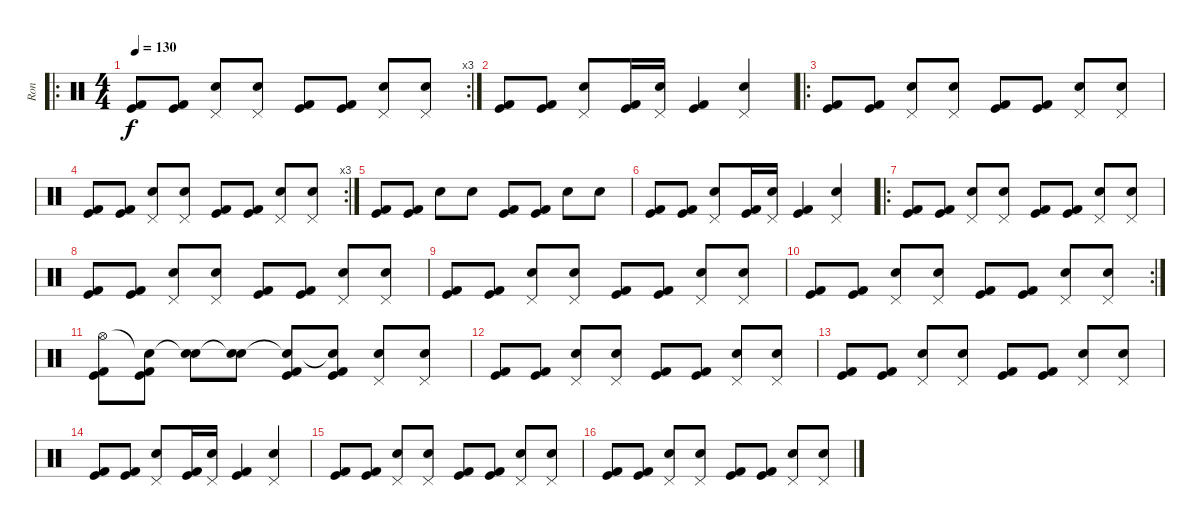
\track ("Ron" "Ron") {instrument percussion}
\staff {score}
\articulation defaults
\ro
\rc 3
\ts (4 4)
\tempo 130
\clef neutral
\ks c
("Kick (hit) 2" "Kick (hit)").8{dy f} ("Kick (hit) 2" "Kick (hit)").8 ("Pedal Hi-Hat (hit)" "Electric Snare (hit)").8 ("Pedal Hi-Hat (hit)" "Electric Snare (hit)").8 ("Kick (hit) 2" "Kick (hit)").8 ("Kick (hit) 2" "Kick (hit)").8 ("Pedal Hi-Hat (hit)" "Electric Snare (hit)").8 ("Pedal Hi-Hat (hit)" "Electric Snare (hit)").8 |
("Kick (hit) 2" "Kick (hit)").8 ("Kick (hit) 2" "Kick (hit)").8 ("Pedal Hi-Hat (hit)" "Electric Snare (hit)").8 ("Kick (hit) 2" "Kick (hit)").16 ("Pedal Hi-Hat (hit)" "Electric Snare (hit)").16 ("Kick (hit) 2" "Kick (hit)").4 ("Pedal Hi-Hat (hit)" "Electric Snare (hit)").4 |
\ro
("Kick (hit) 2" "Kick (hit)").8 ("Kick (hit) 2" "Kick (hit)").8 ("Pedal Hi-Hat (hit)" "Electric Snare (hit)").8 ("Pedal Hi-Hat (hit)" "Electric Snare (hit)").8 ("Kick (hit) 2" "Kick (hit)").8 ("Kick (hit) 2" "Kick (hit)").8 ("Pedal Hi-Hat (hit)" "Electric Snare (hit)").8 ("Pedal Hi-Hat (hit)" "Electric Snare (hit)").8 |
\rc 3
("Kick (hit) 2" "Kick (hit)").8 ("Kick (hit) 2" "Kick (hit)").8 ("Pedal Hi-Hat (hit)" "Electric Snare (hit)").8 ("Pedal Hi-Hat (hit)" "Electric Snare (hit)").8 ("Kick (hit) 2" "Kick (hit)").8 ("Kick (hit) 2" "Kick (hit)").8 ("Pedal Hi-Hat (hit)" "Electric Snare (hit)").8 ("Pedal Hi-Hat (hit)" "Electric Snare (hit)").8 |
("Kick (hit) 2" "Kick (hit)").8 ("Kick (hit) 2" "Kick (hit)").8 "Electric Snare (hit)".8 "Electric Snare (hit)".8 ("Kick (hit) 2" "Kick (hit)").8 ("Kick (hit) 2" "Kick (hit)").8 "Electric Snare (hit)".8 "Electric Snare (hit)".8 |
("Kick (hit) 2" "Kick (hit)").8 ("Kick (hit) 2" "Kick (hit)").8 ("Pedal Hi-Hat (hit)" "Electric Snare (hit)").8 ("Kick (hit) 2" "Kick (hit)").16 ("Pedal Hi-Hat (hit)" "Electric Snare (hit)").16 ("Kick (hit) 2" "Kick (hit)").4 ("Pedal Hi-Hat (hit)" "Electric Snare (hit)").4 |
\ro
("Kick (hit) 2" "Kick (hit)").8 ("Kick (hit) 2" "Kick (hit)").8 ("Pedal Hi-Hat (hit)" "Electric Snare (hit)").8 ("Pedal Hi-Hat (hit)" "Electric Snare (hit)").8 ("Kick (hit) 2" "Kick (hit)").8 ("Kick (hit) 2" "Kick (hit)").8 ("Pedal Hi-Hat (hit)" "Electric Snare (hit)").8 ("Pedal Hi-Hat (hit)" "Electric Snare (hit)").8 |
("Kick (hit) 2" "Kick (hit)").8 ("Kick (hit) 2" "Kick (hit)").8 ("Pedal Hi-Hat (hit)" "Electric Snare (hit)").8 ("Pedal Hi-Hat (hit)" "Electric Snare (hit)").8 ("Kick (hit) 2" "Kick (hit)").8 ("Kick (hit) 2" "Kick (hit)").8 ("Pedal Hi-Hat (hit)" "Electric Snare (hit)").8 ("Pedal Hi-Hat (hit)" "Electric Snare (hit)").8 |
("Kick (hit) 2" "Kick (hit)").8 ("Kick (hit) 2" "Kick (hit)").8 ("Pedal Hi-Hat (hit)" "Electric Snare (hit)").8 ("Pedal Hi-Hat (hit)" "Electric Snare (hit)").8 ("Kick (hit) 2" "Kick (hit)").8 ("Kick (hit) 2" "Kick (hit)").8 ("Pedal Hi-Hat (hit)" "Electric Snare (hit)").8 ("Pedal Hi-Hat (hit)" "Electric Snare (hit)").8 |
\rc 2
("Kick (hit) 2" "Kick (hit)").8 ("Kick (hit) 2" "Kick (hit)").8 ("Pedal Hi-Hat (hit)" "Electric Snare (hit)").8 ("Pedal Hi-Hat (hit)" "Electric Snare (hit)").8 ("Kick (hit) 2" "Kick (hit)").8 ("Kick (hit) 2" "Kick (hit)").8 ("Pedal Hi-Hat (hit)" "Electric Snare (hit)").8 ("Pedal Hi-Hat (hit)" "Electric Snare (hit)").8 |
("Hi-Hat (open)" "Kick (hit) 2" "Kick (hit)").8 ("Snare (hit)"{t} "Kick (hit) 2" "Kick (hit)").8 ("Snare (hit)"{t} "Electric Snare (hit)").8 ("Snare (hit)"{t} "Electric Snare (hit)").8 ("Snare (hit)"{t} "Kick (hit) 2" "Kick (hit)").8 ("Snare (hit)"{t} "Kick (hit) 2" "Kick (hit)").8 ("Pedal Hi-Hat (hit)" "Electric Snare (hit)").8 ("Pedal Hi-Hat (hit)" "Electric Snare (hit)").8 |
("Kick (hit) 2" "Kick (hit)").8 ("Kick (hit) 2" "Kick (hit)").8 ("Pedal Hi-Hat (hit)" "Electric Snare (hit)").8 ("Pedal Hi-Hat (hit)" "Electric Snare (hit)").8 ("Kick (hit) 2" "Kick (hit)").8 ("Kick (hit) 2" "Kick (hit)").8 ("Pedal Hi-Hat (hit)" "Electric Snare (hit)").8 ("Pedal Hi-Hat (hit)" "Electric Snare (hit)").8 |
("Kick (hit) 2" "Kick (hit)").8 ("Kick (hit) 2" "Kick (hit)").8 ("Pedal Hi-Hat (hit)" "Electric Snare (hit)").8 ("Pedal Hi-Hat (hit)" "Electric Snare (hit)").8 ("Kick (hit) 2" "Kick (hit)").8 ("Kick (hit) 2" "Kick (hit)").8 ("Pedal Hi-Hat (hit)" "Electric Snare (hit)").8 ("Pedal Hi-Hat (hit)" "Electric Snare (hit)").8 |
("Kick (hit) 2" "Kick (hit)").8 ("Kick (hit) 2" "Kick (hit)").8 ("Pedal Hi-Hat (hit)" "Electric Snare (hit)").8 ("Kick (hit) 2" "Kick (hit)").16 ("Pedal Hi-Hat (hit)" "Electric Snare (hit)").16 ("Kick (hit) 2" "Kick (hit)").4 ("Pedal Hi-Hat (hit)" "Electric Snare (hit)").4 |
("Kick (hit) 2" "Kick (hit)").8 ("Kick (hit) 2" "Kick (hit)").8 ("Pedal Hi-Hat (hit)" "Electric Snare (hit)").8 ("Pedal Hi-Hat (hit)" "Electric Snare (hit)").8 ("Kick (hit) 2" "Kick (hit)").8 ("Kick (hit) 2" "Kick (hit)").8 ("Pedal Hi-Hat (hit)" "Electric Snare (hit)").8 ("Pedal Hi-Hat (hit)" "Electric Snare (hit)").8 |
("Kick (hit) 2" "Kick (hit)").8 ("Kick (hit) 2" "Kick (hit)").8 ("Pedal Hi-Hat (hit)" "Electric Snare (hit)").8 ("Pedal Hi-Hat (hit)" "Electric Snare (hit)").8 ("Kick (hit) 2" "Kick (hit)").8 ("Kick (hit) 2" "Kick (hit)").8 ("Pedal Hi-Hat (hit)" "Electric Snare (hit)").8 ("Pedal Hi-Hat (hit)" "Electric Snare (hit)").8
